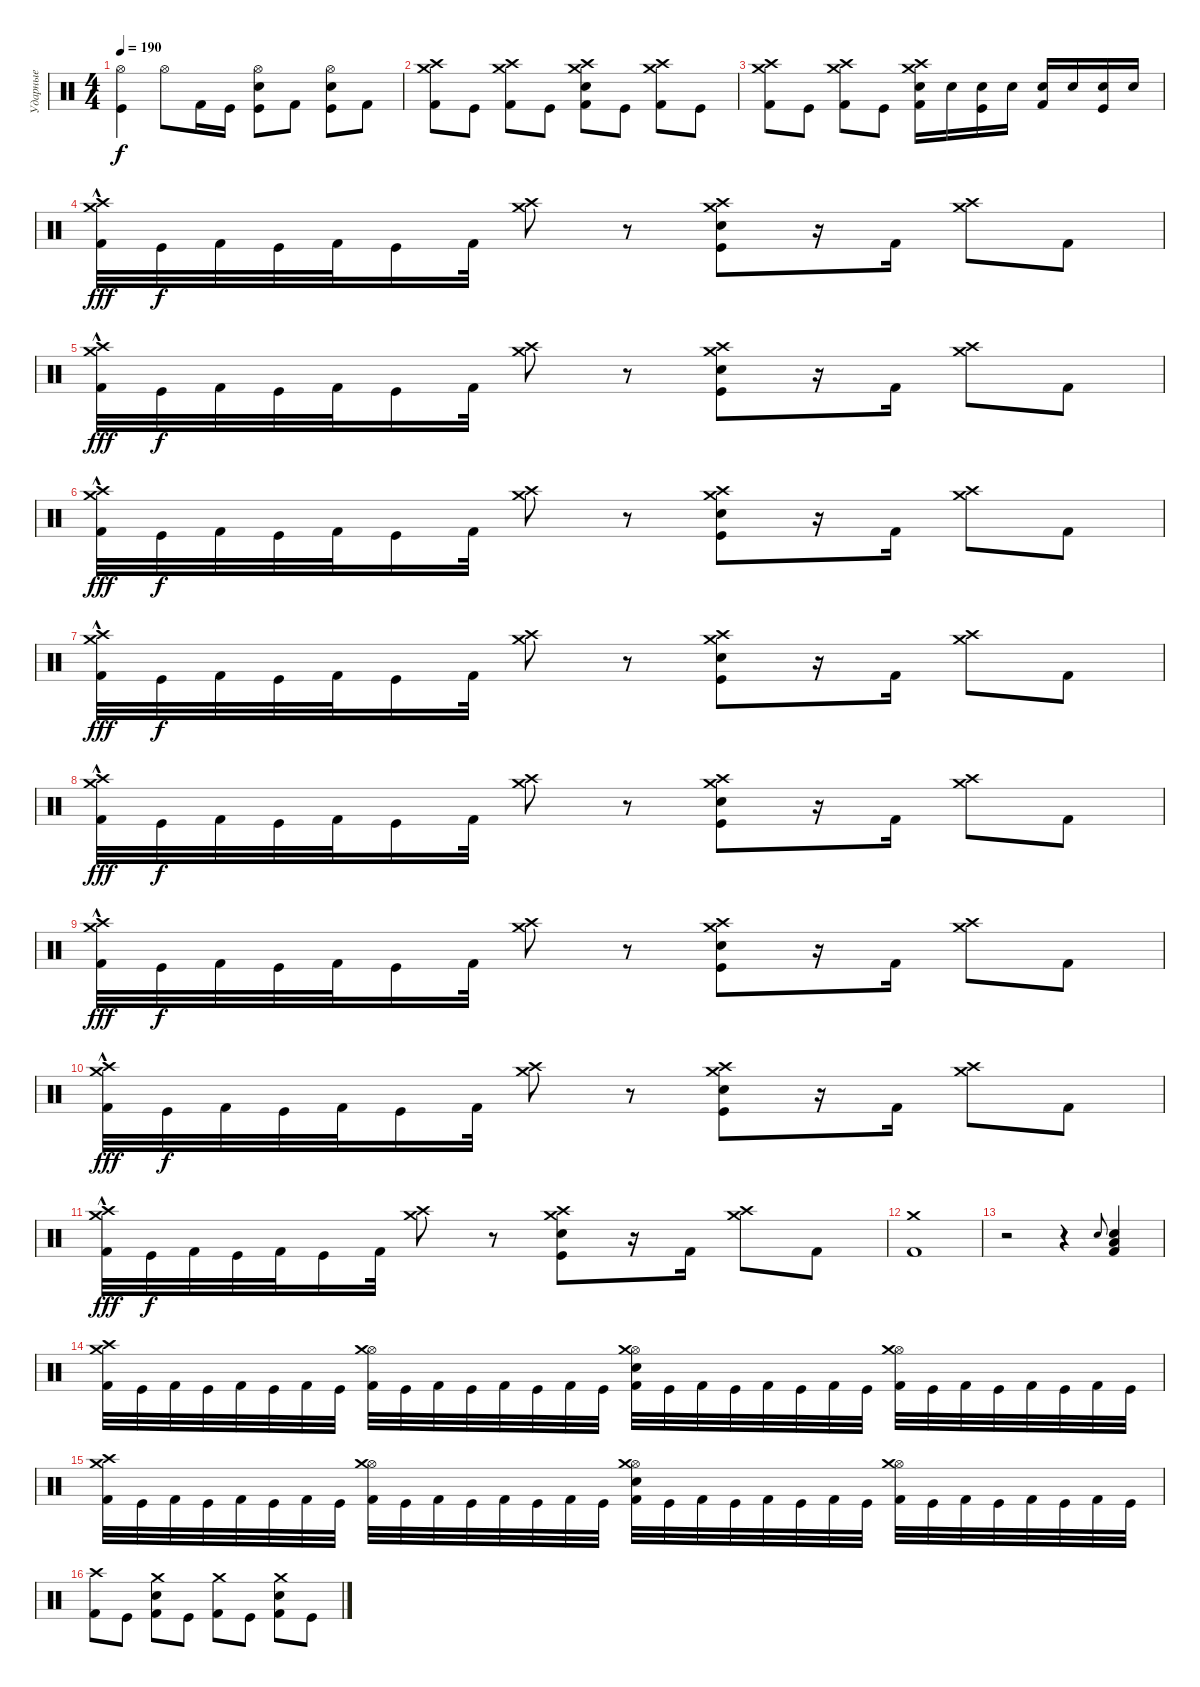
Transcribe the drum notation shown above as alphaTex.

\track ("Ударные" "Ударные") {instrument percussion}
\staff {score}
\articulation defaults
\ts (4 4)
\tempo 190
\clef neutral
\ks c
("Hi-Hat (open)" "Kick (hit)").4{dy f} "Hi-Hat (open)".8 "Kick (hit) 2".16 "Kick (hit)".16 ("Hi-Hat (open)" "Electric Snare (hit)" "Kick (hit)").8 "Kick (hit) 2".8 ("Hi-Hat (open)" "Electric Snare (hit)" "Kick (hit)").8 "Kick (hit) 2".8 |
("Crash high (hit)" "Crash medium (hit)" "Kick (hit) 2").8 "Kick (hit)".8 ("Crash high (hit)" "Crash medium (hit)" "Kick (hit) 2").8 "Kick (hit)".8 ("Crash high (hit)" "Crash medium (hit)" "Electric Snare (hit)" "Kick (hit) 2").8 "Kick (hit)".8 ("Crash high (hit)" "Crash medium (hit)" "Kick (hit) 2").8 "Kick (hit)".8 |
("Crash high (hit)" "Crash medium (hit)" "Kick (hit) 2").8 "Kick (hit)".8 ("Crash high (hit)" "Crash medium (hit)" "Kick (hit) 2").8 "Kick (hit)".8 ("Crash high (hit)" "Crash medium (hit)" "Electric Snare (hit)" "Kick (hit) 2").16 "Electric Snare (hit)".16 ("Electric Snare (hit)" "Kick (hit)").16 "Electric Snare (hit)".16 ("Electric Snare (hit)" "Kick (hit) 2").16 "Electric Snare (hit)".16 ("Electric Snare (hit)" "Kick (hit)").16 "Electric Snare (hit)".16 |
("Crash high (hit)"{hac} "Crash medium (hit)" "Kick (hit) 2").32{dy fff} "Kick (hit)".32{dy f} "Kick (hit) 2".32 "Kick (hit)".32 "Kick (hit) 2".32 "Kick (hit)".16 "Kick (hit) 2".32 ("Crash high (hit)" "Crash medium (hit)").8 r.8 ("Crash high (hit)" "Crash medium (hit)" "Electric Snare (hit)" "Kick (hit)").8 r.16 "Kick (hit) 2".16 ("Crash high (hit)" "Crash medium (hit)").8 "Kick (hit) 2".8 |
("Crash high (hit)"{hac} "Crash medium (hit)" "Kick (hit) 2").32{dy fff} "Kick (hit)".32{dy f} "Kick (hit) 2".32 "Kick (hit)".32 "Kick (hit) 2".32 "Kick (hit)".16 "Kick (hit) 2".32 ("Crash high (hit)" "Crash medium (hit)").8 r.8 ("Crash high (hit)" "Crash medium (hit)" "Electric Snare (hit)" "Kick (hit)").8 r.16 "Kick (hit) 2".16 ("Crash high (hit)" "Crash medium (hit)").8 "Kick (hit) 2".8 |
("Crash high (hit)"{hac} "Crash medium (hit)" "Kick (hit) 2").32{dy fff} "Kick (hit)".32{dy f} "Kick (hit) 2".32 "Kick (hit)".32 "Kick (hit) 2".32 "Kick (hit)".16 "Kick (hit) 2".32 ("Crash high (hit)" "Crash medium (hit)").8 r.8 ("Crash high (hit)" "Crash medium (hit)" "Electric Snare (hit)" "Kick (hit)").8 r.16 "Kick (hit) 2".16 ("Crash high (hit)" "Crash medium (hit)").8 "Kick (hit) 2".8 |
("Crash high (hit)"{hac} "Crash medium (hit)" "Kick (hit) 2").32{dy fff} "Kick (hit)".32{dy f} "Kick (hit) 2".32 "Kick (hit)".32 "Kick (hit) 2".32 "Kick (hit)".16 "Kick (hit) 2".32 ("Crash high (hit)" "Crash medium (hit)").8 r.8 ("Crash high (hit)" "Crash medium (hit)" "Electric Snare (hit)" "Kick (hit)").8 r.16 "Kick (hit) 2".16 ("Crash high (hit)" "Crash medium (hit)").8 "Kick (hit) 2".8 |
("Crash high (hit)"{hac} "Crash medium (hit)" "Kick (hit) 2").32{dy fff} "Kick (hit)".32{dy f} "Kick (hit) 2".32 "Kick (hit)".32 "Kick (hit) 2".32 "Kick (hit)".16 "Kick (hit) 2".32 ("Crash high (hit)" "Crash medium (hit)").8 r.8 ("Crash high (hit)" "Crash medium (hit)" "Electric Snare (hit)" "Kick (hit)").8 r.16 "Kick (hit) 2".16 ("Crash high (hit)" "Crash medium (hit)").8 "Kick (hit) 2".8 |
("Crash high (hit)"{hac} "Crash medium (hit)" "Kick (hit) 2").32{dy fff} "Kick (hit)".32{dy f} "Kick (hit) 2".32 "Kick (hit)".32 "Kick (hit) 2".32 "Kick (hit)".16 "Kick (hit) 2".32 ("Crash high (hit)" "Crash medium (hit)").8 r.8 ("Crash high (hit)" "Crash medium (hit)" "Electric Snare (hit)" "Kick (hit)").8 r.16 "Kick (hit) 2".16 ("Crash high (hit)" "Crash medium (hit)").8 "Kick (hit) 2".8 |
("Crash high (hit)"{hac} "Crash medium (hit)" "Kick (hit) 2").32{dy fff} "Kick (hit)".32{dy f} "Kick (hit) 2".32 "Kick (hit)".32 "Kick (hit) 2".32 "Kick (hit)".16 "Kick (hit) 2".32 ("Crash high (hit)" "Crash medium (hit)").8 r.8 ("Crash high (hit)" "Crash medium (hit)" "Electric Snare (hit)" "Kick (hit)").8 r.16 "Kick (hit) 2".16 ("Crash high (hit)" "Crash medium (hit)").8 "Kick (hit) 2".8 |
("Crash high (hit)"{hac} "Crash medium (hit)" "Kick (hit) 2").32{dy fff} "Kick (hit)".32{dy f} "Kick (hit) 2".32 "Kick (hit)".32 "Kick (hit) 2".32 "Kick (hit)".16 "Kick (hit) 2".32 ("Crash high (hit)" "Crash medium (hit)").8 r.8 ("Crash high (hit)" "Crash medium (hit)" "Electric Snare (hit)" "Kick (hit)").8 r.16 "Kick (hit) 2".16 ("Crash high (hit)" "Crash medium (hit)").8 "Kick (hit) 2".8 |
("Crash medium (hit)" "Kick (hit) 2").1 |
r.2 r.4 "Electric Snare (hit)"{x}.8{gr onbeat} ("Electric Snare (hit)" "Low Tom (hit)" "Kick (hit) 2").4 |
("Crash high (hit)" "Crash medium (hit)" "Kick (hit) 2").32 "Kick (hit)".32 "Kick (hit) 2".32 "Kick (hit)".32 "Kick (hit) 2".32 "Kick (hit)".32 "Kick (hit) 2".32 "Kick (hit)".32 ("Hi-Hat (open)" "Crash medium (hit)" "Kick (hit) 2").32 "Kick (hit)".32 "Kick (hit) 2".32 "Kick (hit)".32 "Kick (hit) 2".32 "Kick (hit)".32 "Kick (hit) 2".32 "Kick (hit)".32 ("Hi-Hat (open)" "Crash medium (hit)" "Electric Snare (hit)" "Kick (hit) 2").32 "Kick (hit)".32 "Kick (hit) 2".32 "Kick (hit)".32 "Kick (hit) 2".32 "Kick (hit)".32 "Kick (hit) 2".32 "Kick (hit)".32 ("Hi-Hat (open)" "Crash medium (hit)" "Kick (hit) 2").32 "Kick (hit)".32 "Kick (hit) 2".32 "Kick (hit)".32 "Kick (hit) 2".32 "Kick (hit)".32 "Kick (hit) 2".32 "Kick (hit)".32 |
("Crash high (hit)" "Crash medium (hit)" "Kick (hit) 2").32 "Kick (hit)".32 "Kick (hit) 2".32 "Kick (hit)".32 "Kick (hit) 2".32 "Kick (hit)".32 "Kick (hit) 2".32 "Kick (hit)".32 ("Hi-Hat (open)" "Crash medium (hit)" "Kick (hit) 2").32 "Kick (hit)".32 "Kick (hit) 2".32 "Kick (hit)".32 "Kick (hit) 2".32 "Kick (hit)".32 "Kick (hit) 2".32 "Kick (hit)".32 ("Hi-Hat (open)" "Crash medium (hit)" "Electric Snare (hit)" "Kick (hit) 2").32 "Kick (hit)".32 "Kick (hit) 2".32 "Kick (hit)".32 "Kick (hit) 2".32 "Kick (hit)".32 "Kick (hit) 2".32 "Kick (hit)".32 ("Hi-Hat (open)" "Crash medium (hit)" "Kick (hit) 2").32 "Kick (hit)".32 "Kick (hit) 2".32 "Kick (hit)".32 "Kick (hit) 2".32 "Kick (hit)".32 "Kick (hit) 2".32 "Kick (hit)".32 |
("Crash high (hit)" "Kick (hit) 2").8 "Kick (hit)".8 ("Crash medium (hit)" "Electric Snare (hit)" "Kick (hit) 2").8 "Kick (hit)".8 ("Crash medium (hit)" "Kick (hit) 2").8 "Kick (hit)".8 ("Crash medium (hit)" "Electric Snare (hit)" "Kick (hit) 2").8 "Kick (hit)".8
